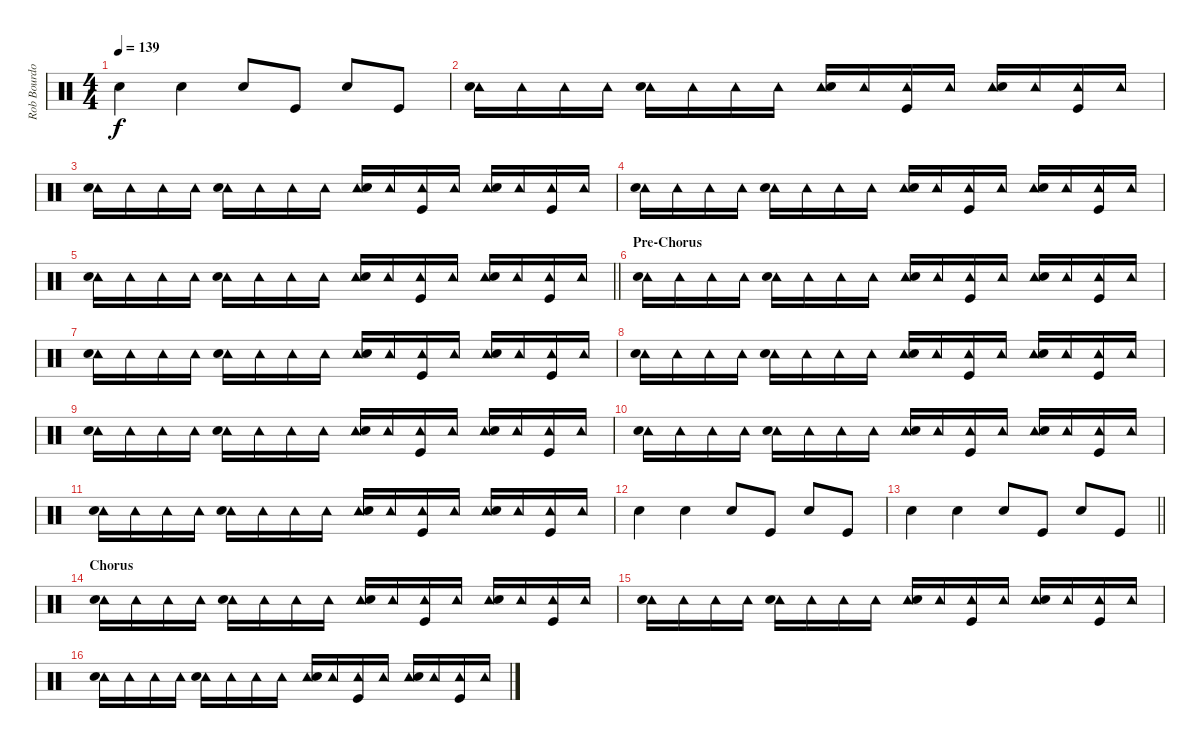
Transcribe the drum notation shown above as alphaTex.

\track ("Rob Bourdon [Drums] / Clap from Audience" "Rob Bourdo") {instrument percussion}
\staff {score}
\articulation defaults
\ts (4 4)
\tempo 139
\clef neutral
\ks c "Snare (hit) 2".4{dy f} "Snare (hit) 2".4 "Snare (hit) 2".8 "Kick (hit)".8 "Snare (hit) 2".8 "Kick (hit)".8
|
("Tambourine (hit)" "Snare (hit) 2").16 "Tambourine (hit)".16 "Tambourine (hit)".16 "Tambourine (hit)".16 ("Tambourine (hit)" "Snare (hit) 2").16 "Tambourine (hit)".16 "Tambourine (hit)".16 "Tambourine (hit)".16 ("Tambourine (hit)" "Snare (hit) 2").16 "Tambourine (hit)".16 ("Tambourine (hit)" "Kick (hit)").16 "Tambourine (hit)".16 ("Tambourine (hit)" "Snare (hit) 2").16 "Tambourine (hit)".16 ("Tambourine (hit)" "Kick (hit)").16 "Tambourine (hit)".16 |
("Tambourine (hit)" "Snare (hit) 2").16 "Tambourine (hit)".16 "Tambourine (hit)".16 "Tambourine (hit)".16 ("Tambourine (hit)" "Snare (hit) 2").16 "Tambourine (hit)".16 "Tambourine (hit)".16 "Tambourine (hit)".16 ("Tambourine (hit)" "Snare (hit) 2").16 "Tambourine (hit)".16 ("Tambourine (hit)" "Kick (hit)").16 "Tambourine (hit)".16 ("Tambourine (hit)" "Snare (hit) 2").16 "Tambourine (hit)".16 ("Tambourine (hit)" "Kick (hit)").16 "Tambourine (hit)".16 |
("Tambourine (hit)" "Snare (hit) 2").16 "Tambourine (hit)".16 "Tambourine (hit)".16 "Tambourine (hit)".16 ("Tambourine (hit)" "Snare (hit) 2").16 "Tambourine (hit)".16 "Tambourine (hit)".16 "Tambourine (hit)".16 ("Tambourine (hit)" "Snare (hit) 2").16 "Tambourine (hit)".16 ("Tambourine (hit)" "Kick (hit)").16 "Tambourine (hit)".16 ("Tambourine (hit)" "Snare (hit) 2").16 "Tambourine (hit)".16 ("Tambourine (hit)" "Kick (hit)").16 "Tambourine (hit)".16 |
\barLineRight lightlight
("Tambourine (hit)" "Snare (hit) 2").16 "Tambourine (hit)".16 "Tambourine (hit)".16 "Tambourine (hit)".16 ("Tambourine (hit)" "Snare (hit) 2").16 "Tambourine (hit)".16 "Tambourine (hit)".16 "Tambourine (hit)".16 ("Tambourine (hit)" "Snare (hit) 2").16 "Tambourine (hit)".16 ("Tambourine (hit)" "Kick (hit)").16 "Tambourine (hit)".16 ("Tambourine (hit)" "Snare (hit) 2").16 "Tambourine (hit)".16 ("Tambourine (hit)" "Kick (hit)").16 "Tambourine (hit)".16 |
\section ("" "Pre-Chorus")
("Tambourine (hit)" "Snare (hit) 2").16 "Tambourine (hit)".16 "Tambourine (hit)".16 "Tambourine (hit)".16 ("Tambourine (hit)" "Snare (hit) 2").16 "Tambourine (hit)".16 "Tambourine (hit)".16 "Tambourine (hit)".16 ("Tambourine (hit)" "Snare (hit) 2").16 "Tambourine (hit)".16 ("Tambourine (hit)" "Kick (hit)").16 "Tambourine (hit)".16 ("Tambourine (hit)" "Snare (hit) 2").16 "Tambourine (hit)".16 ("Tambourine (hit)" "Kick (hit)").16 "Tambourine (hit)".16 |
("Tambourine (hit)" "Snare (hit) 2").16 "Tambourine (hit)".16 "Tambourine (hit)".16 "Tambourine (hit)".16 ("Tambourine (hit)" "Snare (hit) 2").16 "Tambourine (hit)".16 "Tambourine (hit)".16 "Tambourine (hit)".16 ("Tambourine (hit)" "Snare (hit) 2").16 "Tambourine (hit)".16 ("Tambourine (hit)" "Kick (hit)").16 "Tambourine (hit)".16 ("Tambourine (hit)" "Snare (hit) 2").16 "Tambourine (hit)".16 ("Tambourine (hit)" "Kick (hit)").16 "Tambourine (hit)".16 |
("Tambourine (hit)" "Snare (hit) 2").16 "Tambourine (hit)".16 "Tambourine (hit)".16 "Tambourine (hit)".16 ("Tambourine (hit)" "Snare (hit) 2").16 "Tambourine (hit)".16 "Tambourine (hit)".16 "Tambourine (hit)".16 ("Tambourine (hit)" "Snare (hit) 2").16 "Tambourine (hit)".16 ("Tambourine (hit)" "Kick (hit)").16 "Tambourine (hit)".16 ("Tambourine (hit)" "Snare (hit) 2").16 "Tambourine (hit)".16 ("Tambourine (hit)" "Kick (hit)").16 "Tambourine (hit)".16 |
("Tambourine (hit)" "Snare (hit) 2").16 "Tambourine (hit)".16 "Tambourine (hit)".16 "Tambourine (hit)".16 ("Tambourine (hit)" "Snare (hit) 2").16 "Tambourine (hit)".16 "Tambourine (hit)".16 "Tambourine (hit)".16 ("Tambourine (hit)" "Snare (hit) 2").16 "Tambourine (hit)".16 ("Tambourine (hit)" "Kick (hit)").16 "Tambourine (hit)".16 ("Tambourine (hit)" "Snare (hit) 2").16 "Tambourine (hit)".16 ("Tambourine (hit)" "Kick (hit)").16 "Tambourine (hit)".16 |
("Tambourine (hit)" "Snare (hit) 2").16 "Tambourine (hit)".16 "Tambourine (hit)".16 "Tambourine (hit)".16 ("Tambourine (hit)" "Snare (hit) 2").16 "Tambourine (hit)".16 "Tambourine (hit)".16 "Tambourine (hit)".16 ("Tambourine (hit)" "Snare (hit) 2").16 "Tambourine (hit)".16 ("Tambourine (hit)" "Kick (hit)").16 "Tambourine (hit)".16 ("Tambourine (hit)" "Snare (hit) 2").16 "Tambourine (hit)".16 ("Tambourine (hit)" "Kick (hit)").16 "Tambourine (hit)".16 |
("Tambourine (hit)" "Snare (hit) 2").16 "Tambourine (hit)".16 "Tambourine (hit)".16 "Tambourine (hit)".16 ("Tambourine (hit)" "Snare (hit) 2").16 "Tambourine (hit)".16 "Tambourine (hit)".16 "Tambourine (hit)".16 ("Tambourine (hit)" "Snare (hit) 2").16 "Tambourine (hit)".16 ("Tambourine (hit)" "Kick (hit)").16 "Tambourine (hit)".16 ("Tambourine (hit)" "Snare (hit) 2").16 "Tambourine (hit)".16 ("Tambourine (hit)" "Kick (hit)").16 "Tambourine (hit)".16 |
"Snare (hit) 2".4 "Snare (hit) 2".4 "Snare (hit) 2".8 "Kick (hit)".8 "Snare (hit) 2".8 "Kick (hit)".8 |
\barLineRight lightlight "Snare (hit) 2".4 "Snare (hit) 2".4 "Snare (hit) 2".8 "Kick (hit)".8 "Snare (hit) 2".8 "Kick (hit)".8
|
\section ("" "Chorus")
("Tambourine (hit)" "Snare (hit) 2").16 "Tambourine (hit)".16 "Tambourine (hit)".16 "Tambourine (hit)".16 ("Tambourine (hit)" "Snare (hit) 2").16 "Tambourine (hit)".16 "Tambourine (hit)".16 "Tambourine (hit)".16 ("Tambourine (hit)" "Snare (hit) 2").16 "Tambourine (hit)".16 ("Tambourine (hit)" "Kick (hit)").16 "Tambourine (hit)".16 ("Tambourine (hit)" "Snare (hit) 2").16 "Tambourine (hit)".16 ("Tambourine (hit)" "Kick (hit)").16 "Tambourine (hit)".16 |
("Tambourine (hit)" "Snare (hit) 2").16 "Tambourine (hit)".16 "Tambourine (hit)".16 "Tambourine (hit)".16 ("Tambourine (hit)" "Snare (hit) 2").16 "Tambourine (hit)".16 "Tambourine (hit)".16 "Tambourine (hit)".16 ("Tambourine (hit)" "Snare (hit) 2").16 "Tambourine (hit)".16 ("Tambourine (hit)" "Kick (hit)").16 "Tambourine (hit)".16 ("Tambourine (hit)" "Snare (hit) 2").16 "Tambourine (hit)".16 ("Tambourine (hit)" "Kick (hit)").16 "Tambourine (hit)".16 |
("Tambourine (hit)" "Snare (hit) 2").16 "Tambourine (hit)".16 "Tambourine (hit)".16 "Tambourine (hit)".16 ("Tambourine (hit)" "Snare (hit) 2").16 "Tambourine (hit)".16 "Tambourine (hit)".16 "Tambourine (hit)".16 ("Tambourine (hit)" "Snare (hit) 2").16 "Tambourine (hit)".16 ("Tambourine (hit)" "Kick (hit)").16 "Tambourine (hit)".16 ("Tambourine (hit)" "Snare (hit) 2").16 "Tambourine (hit)".16 ("Tambourine (hit)" "Kick (hit)").16 "Tambourine (hit)".16
